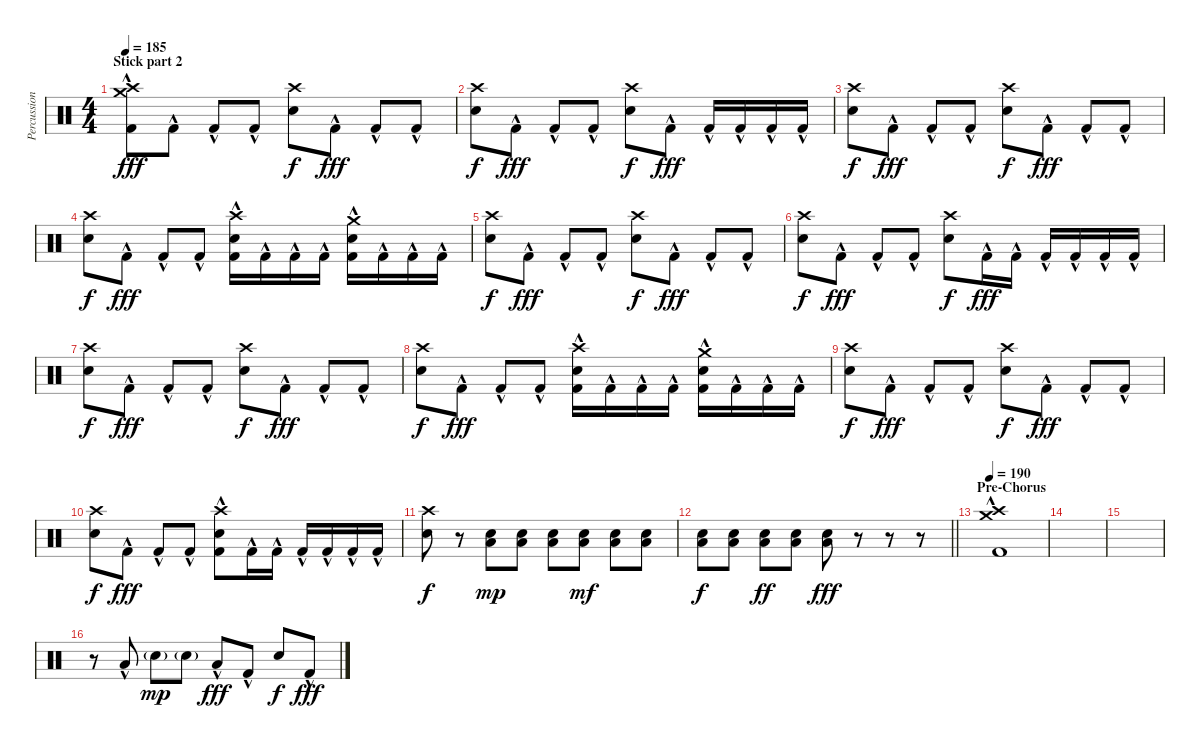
\track ("Percussion" "Percussion") {instrument percussion}
\staff {score}
\articulation defaults
\ts (4 4)
\section ("" "Stick part 2")
\tempo 185
\clef neutral
\ks c
("Crash high (hit)" "Crash medium (hit)" "Kick (hit) 2"{hac}).8{dy fff} "Kick (hit) 2"{hac}.8 "Kick (hit) 2"{hac}.8 "Kick (hit) 2"{hac}.8 ("Crash high (hit)" "Snare (hit) 2").8{dy f} "Kick (hit) 2"{hac}.8{dy fff} "Kick (hit) 2"{hac}.8 "Kick (hit) 2"{hac}.8 |
("Crash high (hit)" "Snare (hit) 2").8{dy f} "Kick (hit) 2"{hac}.8{dy fff} "Kick (hit) 2"{hac}.8 "Kick (hit) 2"{hac}.8 ("Crash high (hit)" "Snare (hit) 2").8{dy f} "Kick (hit) 2"{hac}.8{dy fff} "Kick (hit) 2"{hac}.16 "Kick (hit) 2"{hac}.16 "Kick (hit) 2"{hac}.16 "Kick (hit) 2"{hac}.16 |
("Crash high (hit)" "Snare (hit) 2").8{dy f} "Kick (hit) 2"{hac}.8{dy fff} "Kick (hit) 2"{hac}.8 "Kick (hit) 2"{hac}.8 ("Crash high (hit)" "Snare (hit) 2").8{dy f} "Kick (hit) 2"{hac}.8{dy fff} "Kick (hit) 2"{hac}.8 "Kick (hit) 2"{hac}.8 |
("Crash high (hit)" "Snare (hit) 2").8{dy f} "Kick (hit) 2"{hac}.8{dy fff} "Kick (hit) 2"{hac}.8 "Kick (hit) 2"{hac}.8 ("Crash high (hit)" "Snare (hit) 2" "Kick (hit) 2"{hac}).16 "Kick (hit) 2"{hac}.16 "Kick (hit) 2"{hac}.16 "Kick (hit) 2"{hac}.16 ("Crash medium (hit)" "Snare (hit) 2" "Kick (hit) 2"{hac}).16 "Kick (hit) 2"{hac}.16 "Kick (hit) 2"{hac}.16 "Kick (hit) 2"{hac}.16 |
("Crash high (hit)" "Snare (hit) 2").8{dy f} "Kick (hit) 2"{hac}.8{dy fff} "Kick (hit) 2"{hac}.8 "Kick (hit) 2"{hac}.8 ("Crash high (hit)" "Snare (hit) 2").8{dy f} "Kick (hit) 2"{hac}.8{dy fff} "Kick (hit) 2"{hac}.8 "Kick (hit) 2"{hac}.8 |
("Crash high (hit)" "Snare (hit) 2").8{dy f} "Kick (hit) 2"{hac}.8{dy fff} "Kick (hit) 2"{hac}.8 "Kick (hit) 2"{hac}.8 ("Crash high (hit)" "Snare (hit) 2").8{dy f} "Kick (hit) 2"{hac}.16{dy fff} "Kick (hit) 2"{hac}.16 "Kick (hit) 2"{hac}.16 "Kick (hit) 2"{hac}.16 "Kick (hit) 2"{hac}.16 "Kick (hit) 2"{hac}.16 |
("Crash high (hit)" "Snare (hit) 2").8{dy f} "Kick (hit) 2"{hac}.8{dy fff} "Kick (hit) 2"{hac}.8 "Kick (hit) 2"{hac}.8 ("Crash high (hit)" "Snare (hit) 2").8{dy f} "Kick (hit) 2"{hac}.8{dy fff} "Kick (hit) 2"{hac}.8 "Kick (hit) 2"{hac}.8 |
("Crash high (hit)" "Snare (hit) 2").8{dy f} "Kick (hit) 2"{hac}.8{dy fff} "Kick (hit) 2"{hac}.8 "Kick (hit) 2"{hac}.8 ("Crash high (hit)" "Snare (hit) 2" "Kick (hit) 2"{hac}).16 "Kick (hit) 2"{hac}.16 "Kick (hit) 2"{hac}.16 "Kick (hit) 2"{hac}.16 ("Crash medium (hit)" "Snare (hit) 2" "Kick (hit) 2"{hac}).16 "Kick (hit) 2"{hac}.16 "Kick (hit) 2"{hac}.16 "Kick (hit) 2"{hac}.16 |
("Crash high (hit)" "Snare (hit) 2").8{dy f} "Kick (hit) 2"{hac}.8{dy fff} "Kick (hit) 2"{hac}.8 "Kick (hit) 2"{hac}.8 ("Crash high (hit)" "Snare (hit) 2").8{dy f} "Kick (hit) 2"{hac}.8{dy fff} "Kick (hit) 2"{hac}.8 "Kick (hit) 2"{hac}.8 |
("Crash high (hit)" "Snare (hit) 2").8{dy f} "Kick (hit) 2"{hac}.8{dy fff} "Kick (hit) 2"{hac}.8 "Kick (hit) 2"{hac}.8 ("Crash high (hit)" "Snare (hit) 2" "Kick (hit) 2"{hac}).8 "Kick (hit) 2"{hac}.16 "Kick (hit) 2"{hac}.16 "Kick (hit) 2"{hac}.16 "Kick (hit) 2"{hac}.16 "Kick (hit) 2"{hac}.16 "Kick (hit) 2"{hac}.16 |
("Crash high (hit)" "Snare (hit) 2").8{dy f} r.8 ("Low Floor Tom (hit)" "Snare (hit) 2").8{dy mp} ("Low Floor Tom (hit)" "Snare (hit) 2").8 ("Low Floor Tom (hit)" "Snare (hit) 2").8 ("Low Floor Tom (hit)" "Snare (hit) 2").8{dy mf} ("Low Floor Tom (hit)" "Snare (hit) 2").8 ("Low Floor Tom (hit)" "Snare (hit) 2").8 |
\barLineRight lightlight
("Low Floor Tom (hit)" "Snare (hit) 2").8{dy f} ("Low Floor Tom (hit)" "Snare (hit) 2").8 ("Low Floor Tom (hit)" "Snare (hit) 2").8{dy ff} ("Low Floor Tom (hit)" "Snare (hit) 2").8 ("Low Floor Tom (hit)" "Snare (hit) 2").8{dy fff} r.8 r.8 r.8 |
\section ("" "Pre-Chorus")
\tempo 190
("Crash high (hit)" "Crash medium (hit)" "Kick (hit) 2"{hac}).1 |
|
|
r.8 "Low Tom (hit)"{hac}.8 "Snare (hit) 2"{g}.8{dy mp} "Snare (hit) 2"{g}.8 "Low Tom (hit)"{hac}.8{dy fff} "Kick (hit) 2"{hac}.8 "Snare (hit) 2".8{dy f} "Kick (hit) 2"{hac}.8{dy fff}
